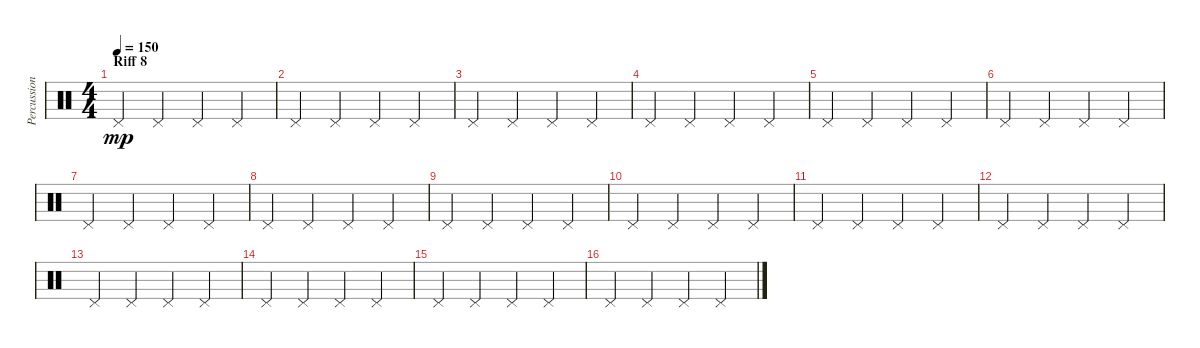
\track ("Percussion" "Percussion") {instrument percussion}
\staff {score}
\articulation defaults
\ts (4 4)
\section ("" "Riff 8")
\tempo 150
\clef neutral
\ks c "Pedal Hi-Hat (hit)".4{dy mp} "Pedal Hi-Hat (hit)".4 "Pedal Hi-Hat (hit)".4 "Pedal Hi-Hat (hit)".4
|
"Pedal Hi-Hat (hit)".4 "Pedal Hi-Hat (hit)".4 "Pedal Hi-Hat (hit)".4 "Pedal Hi-Hat (hit)".4 |
"Pedal Hi-Hat (hit)".4 "Pedal Hi-Hat (hit)".4 "Pedal Hi-Hat (hit)".4 "Pedal Hi-Hat (hit)".4 |
"Pedal Hi-Hat (hit)".4 "Pedal Hi-Hat (hit)".4 "Pedal Hi-Hat (hit)".4 "Pedal Hi-Hat (hit)".4 |
"Pedal Hi-Hat (hit)".4 "Pedal Hi-Hat (hit)".4 "Pedal Hi-Hat (hit)".4 "Pedal Hi-Hat (hit)".4 |
"Pedal Hi-Hat (hit)".4 "Pedal Hi-Hat (hit)".4 "Pedal Hi-Hat (hit)".4 "Pedal Hi-Hat (hit)".4 |
"Pedal Hi-Hat (hit)".4 "Pedal Hi-Hat (hit)".4 "Pedal Hi-Hat (hit)".4 "Pedal Hi-Hat (hit)".4 |
"Pedal Hi-Hat (hit)".4 "Pedal Hi-Hat (hit)".4 "Pedal Hi-Hat (hit)".4 "Pedal Hi-Hat (hit)".4 |
"Pedal Hi-Hat (hit)".4 "Pedal Hi-Hat (hit)".4 "Pedal Hi-Hat (hit)".4 "Pedal Hi-Hat (hit)".4 |
"Pedal Hi-Hat (hit)".4 "Pedal Hi-Hat (hit)".4 "Pedal Hi-Hat (hit)".4 "Pedal Hi-Hat (hit)".4 |
"Pedal Hi-Hat (hit)".4 "Pedal Hi-Hat (hit)".4 "Pedal Hi-Hat (hit)".4 "Pedal Hi-Hat (hit)".4 |
"Pedal Hi-Hat (hit)".4 "Pedal Hi-Hat (hit)".4 "Pedal Hi-Hat (hit)".4 "Pedal Hi-Hat (hit)".4 |
"Pedal Hi-Hat (hit)".4 "Pedal Hi-Hat (hit)".4 "Pedal Hi-Hat (hit)".4 "Pedal Hi-Hat (hit)".4 |
"Pedal Hi-Hat (hit)".4 "Pedal Hi-Hat (hit)".4 "Pedal Hi-Hat (hit)".4 "Pedal Hi-Hat (hit)".4 |
"Pedal Hi-Hat (hit)".4 "Pedal Hi-Hat (hit)".4 "Pedal Hi-Hat (hit)".4 "Pedal Hi-Hat (hit)".4 |
"Pedal Hi-Hat (hit)".4 "Pedal Hi-Hat (hit)".4 "Pedal Hi-Hat (hit)".4 "Pedal Hi-Hat (hit)".4
